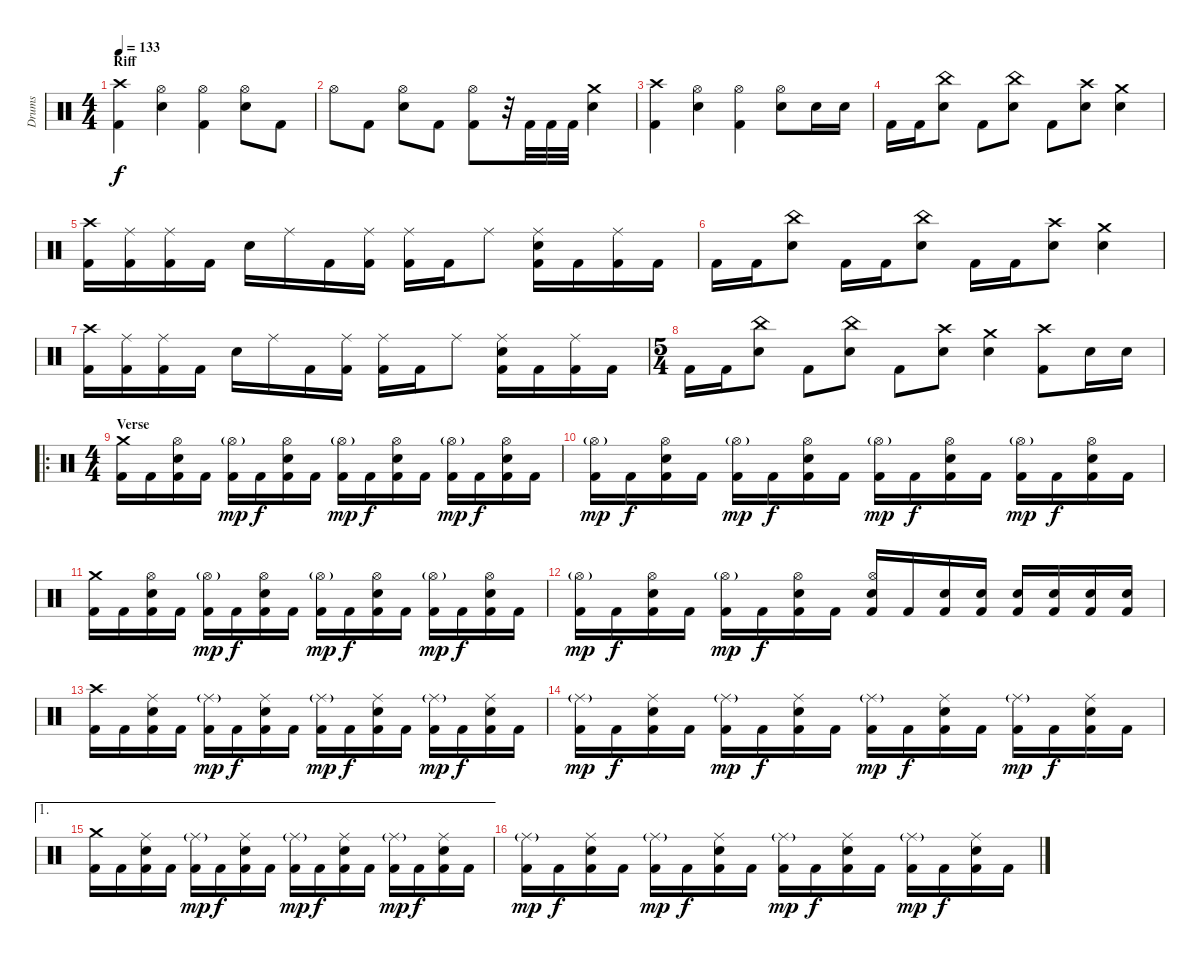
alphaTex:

\track ("Drums" "Drums") {instrument percussion}
\staff {score}
\articulation defaults
\ts (4 4)
\section ("" "Riff")
\tempo 133
\clef neutral
\ks c
("Crash high (hit)" "Kick (hit) 2").4{dy f} ("Hi-Hat (open)" "Electric Snare (hit)").4 ("Hi-Hat (open)" "Kick (hit) 2").4 ("Hi-Hat (open)" "Electric Snare (hit)").8 "Kick (hit) 2".8 |
"Hi-Hat (open)".8 "Kick (hit) 2".8 ("Hi-Hat (open)" "Electric Snare (hit)").8 "Kick (hit) 2".8 ("Hi-Hat (open)" "Kick (hit) 2").8 r.32 "Kick (hit) 2".32 "Kick (hit) 2".32 "Kick (hit) 2".32 ("Crash medium (hit)" "Electric Snare (hit)").4 |
("Crash high (hit)" "Kick (hit) 2").4 ("Hi-Hat (open)" "Electric Snare (hit)").4 ("Hi-Hat (open)" "Kick (hit) 2").4 ("Hi-Hat (open)" "Electric Snare (hit)").8 "Electric Snare (hit)".16 "Electric Snare (hit)".16 |
"Kick (hit) 2".16 "Kick (hit) 2".16 ("China (hit)" "Electric Snare (hit)").8 "Kick (hit) 2".8 ("China (hit)" "Electric Snare (hit)").8 "Kick (hit) 2".8 ("Crash high (hit)" "Electric Snare (hit)").8 ("Crash medium (hit)" "Electric Snare (hit)").4 |
("Crash high (hit)" "Kick (hit) 2").16 ("Ride (middle)" "Kick (hit) 2").16 ("Ride (middle)" "Kick (hit) 2").16 "Kick (hit) 2".16 "Electric Snare (hit)".16 "Ride (middle)".16 "Kick (hit) 2".16 ("Ride (middle)" "Kick (hit) 2").16 ("Ride (middle)" "Kick (hit) 2").16 "Kick (hit) 2".16 "Ride (middle)".8 ("Ride (middle)" "Electric Snare (hit)" "Kick (hit) 2").16 "Kick (hit) 2".16 ("Ride (middle)" "Kick (hit) 2").16 "Kick (hit) 2".16 |
"Kick (hit) 2".16 "Kick (hit) 2".16 ("China (hit)" "Electric Snare (hit)").8 "Kick (hit) 2".16 "Kick (hit) 2".16 ("China (hit)" "Electric Snare (hit)").8 "Kick (hit) 2".16 "Kick (hit) 2".16 ("Crash high (hit)" "Electric Snare (hit)").8 ("Crash medium (hit)" "Electric Snare (hit)").4 |
("Crash high (hit)" "Kick (hit) 2").16 ("Ride (middle)" "Kick (hit) 2").16 ("Ride (middle)" "Kick (hit) 2").16 "Kick (hit) 2".16 "Electric Snare (hit)".16 "Ride (middle)".16 "Kick (hit) 2".16 ("Ride (middle)" "Kick (hit) 2").16 ("Ride (middle)" "Kick (hit) 2").16 "Kick (hit) 2".16 "Ride (middle)".8 ("Ride (middle)" "Electric Snare (hit)" "Kick (hit) 2").16 "Kick (hit) 2".16 ("Ride (middle)" "Kick (hit) 2").16 "Kick (hit) 2".16 |
\ts (5 4)
"Kick (hit) 2".16 "Kick (hit) 2".16 ("China (hit)" "Electric Snare (hit)").8 "Kick (hit) 2".8 ("China (hit)" "Electric Snare (hit)").8 "Kick (hit) 2".8 ("Crash high (hit)" "Electric Snare (hit)").8 ("Crash medium (hit)" "Electric Snare (hit)").4 ("Crash high (hit)" "Kick (hit) 2").8 "Electric Snare (hit)".16 "Electric Snare (hit)".16 |
\ro
\ts (4 4)
\section ("" "Verse")
("Crash medium (hit)" "Kick (hit) 2").16 "Kick (hit) 2".16 ("Hi-Hat (open)" "Electric Snare (hit)" "Kick (hit) 2").16 "Kick (hit) 2".16 ("Hi-Hat (open)"{g} "Kick (hit) 2").16{dy mp} "Kick (hit) 2".16{dy f} ("Hi-Hat (open)" "Electric Snare (hit)" "Kick (hit) 2").16 "Kick (hit) 2".16 ("Hi-Hat (open)"{g} "Kick (hit) 2").16{dy mp} "Kick (hit) 2".16{dy f} ("Hi-Hat (open)" "Electric Snare (hit)" "Kick (hit) 2").16 "Kick (hit) 2".16 ("Hi-Hat (open)"{g} "Kick (hit) 2").16{dy mp} "Kick (hit) 2".16{dy f} ("Hi-Hat (open)" "Electric Snare (hit)" "Kick (hit) 2").16 "Kick (hit) 2".16 |
("Hi-Hat (open)"{g} "Kick (hit) 2").16{dy mp} "Kick (hit) 2".16{dy f} ("Hi-Hat (open)" "Electric Snare (hit)" "Kick (hit) 2").16 "Kick (hit) 2".16 ("Hi-Hat (open)"{g} "Kick (hit) 2").16{dy mp} "Kick (hit) 2".16{dy f} ("Hi-Hat (open)" "Electric Snare (hit)" "Kick (hit) 2").16 "Kick (hit) 2".16 ("Hi-Hat (open)"{g} "Kick (hit) 2").16{dy mp} "Kick (hit) 2".16{dy f} ("Hi-Hat (open)" "Electric Snare (hit)" "Kick (hit) 2").16 "Kick (hit) 2".16 ("Hi-Hat (open)"{g} "Kick (hit) 2").16{dy mp} "Kick (hit) 2".16{dy f} ("Hi-Hat (open)" "Electric Snare (hit)" "Kick (hit) 2").16 "Kick (hit) 2".16 |
("Crash medium (hit)" "Kick (hit) 2").16 "Kick (hit) 2".16 ("Hi-Hat (open)" "Electric Snare (hit)" "Kick (hit) 2").16 "Kick (hit) 2".16 ("Hi-Hat (open)"{g} "Kick (hit) 2").16{dy mp} "Kick (hit) 2".16{dy f} ("Hi-Hat (open)" "Electric Snare (hit)" "Kick (hit) 2").16 "Kick (hit) 2".16 ("Hi-Hat (open)"{g} "Kick (hit) 2").16{dy mp} "Kick (hit) 2".16{dy f} ("Hi-Hat (open)" "Electric Snare (hit)" "Kick (hit) 2").16 "Kick (hit) 2".16 ("Hi-Hat (open)"{g} "Kick (hit) 2").16{dy mp} "Kick (hit) 2".16{dy f} ("Hi-Hat (open)" "Electric Snare (hit)" "Kick (hit) 2").16 "Kick (hit) 2".16 |
("Hi-Hat (open)"{g} "Kick (hit) 2").16{dy mp} "Kick (hit) 2".16{dy f} ("Hi-Hat (open)" "Electric Snare (hit)" "Kick (hit) 2").16 "Kick (hit) 2".16 ("Hi-Hat (open)"{g} "Kick (hit) 2").16{dy mp} "Kick (hit) 2".16{dy f} ("Hi-Hat (open)" "Electric Snare (hit)" "Kick (hit) 2").16 "Kick (hit) 2".16 ("Hi-Hat (open)" "Electric Snare (hit)" "Kick (hit) 2").16 "Kick (hit) 2".16 ("Electric Snare (hit)" "Kick (hit) 2").16 ("Electric Snare (hit)" "Kick (hit) 2").16 ("Electric Snare (hit)" "Kick (hit) 2").16 ("Electric Snare (hit)" "Kick (hit) 2").16 ("Electric Snare (hit)" "Kick (hit) 2").16 ("Electric Snare (hit)" "Kick (hit) 2").16 |
("Crash high (hit)" "Kick (hit) 2").16 "Kick (hit) 2".16 ("Ride (middle)" "Electric Snare (hit)" "Kick (hit) 2").16 "Kick (hit) 2".16 ("Ride (middle)"{g} "Kick (hit) 2").16{dy mp} "Kick (hit) 2".16{dy f} ("Ride (middle)" "Electric Snare (hit)" "Kick (hit) 2").16 "Kick (hit) 2".16 ("Ride (middle)"{g} "Kick (hit) 2").16{dy mp} "Kick (hit) 2".16{dy f} ("Ride (middle)" "Electric Snare (hit)" "Kick (hit) 2").16 "Kick (hit) 2".16 ("Ride (middle)"{g} "Kick (hit) 2").16{dy mp} "Kick (hit) 2".16{dy f} ("Ride (middle)" "Electric Snare (hit)" "Kick (hit) 2").16 "Kick (hit) 2".16 |
("Ride (middle)"{g} "Kick (hit) 2").16{dy mp} "Kick (hit) 2".16{dy f} ("Ride (middle)" "Electric Snare (hit)" "Kick (hit) 2").16 "Kick (hit) 2".16 ("Ride (middle)"{g} "Kick (hit) 2").16{dy mp} "Kick (hit) 2".16{dy f} ("Ride (middle)" "Electric Snare (hit)" "Kick (hit) 2").16 "Kick (hit) 2".16 ("Ride (middle)"{g} "Kick (hit) 2").16{dy mp} "Kick (hit) 2".16{dy f} ("Ride (middle)" "Electric Snare (hit)" "Kick (hit) 2").16 "Kick (hit) 2".16 ("Ride (middle)"{g} "Kick (hit) 2").16{dy mp} "Kick (hit) 2".16{dy f} ("Ride (middle)" "Electric Snare (hit)" "Kick (hit) 2").16 "Kick (hit) 2".16 |
\ae 1
("Crash medium (hit)" "Kick (hit) 2").16 "Kick (hit) 2".16 ("Ride (middle)" "Electric Snare (hit)" "Kick (hit) 2").16 "Kick (hit) 2".16 ("Ride (middle)"{g} "Kick (hit) 2").16{dy mp} "Kick (hit) 2".16{dy f} ("Ride (middle)" "Electric Snare (hit)" "Kick (hit) 2").16 "Kick (hit) 2".16 ("Ride (middle)"{g} "Kick (hit) 2").16{dy mp} "Kick (hit) 2".16{dy f} ("Ride (middle)" "Electric Snare (hit)" "Kick (hit) 2").16 "Kick (hit) 2".16 ("Ride (middle)"{g} "Kick (hit) 2").16{dy mp} "Kick (hit) 2".16{dy f} ("Ride (middle)" "Electric Snare (hit)" "Kick (hit) 2").16 "Kick (hit) 2".16 |
("Ride (middle)"{g} "Kick (hit) 2").16{dy mp} "Kick (hit) 2".16{dy f} ("Ride (middle)" "Electric Snare (hit)" "Kick (hit) 2").16 "Kick (hit) 2".16 ("Ride (middle)"{g} "Kick (hit) 2").16{dy mp} "Kick (hit) 2".16{dy f} ("Ride (middle)" "Electric Snare (hit)" "Kick (hit) 2").16 "Kick (hit) 2".16 ("Ride (middle)"{g} "Kick (hit) 2").16{dy mp} "Kick (hit) 2".16{dy f} ("Ride (middle)" "Electric Snare (hit)" "Kick (hit) 2").16 "Kick (hit) 2".16 ("Ride (middle)"{g} "Kick (hit) 2").16{dy mp} "Kick (hit) 2".16{dy f} ("Ride (middle)" "Electric Snare (hit)" "Kick (hit) 2").16 "Kick (hit) 2".16
